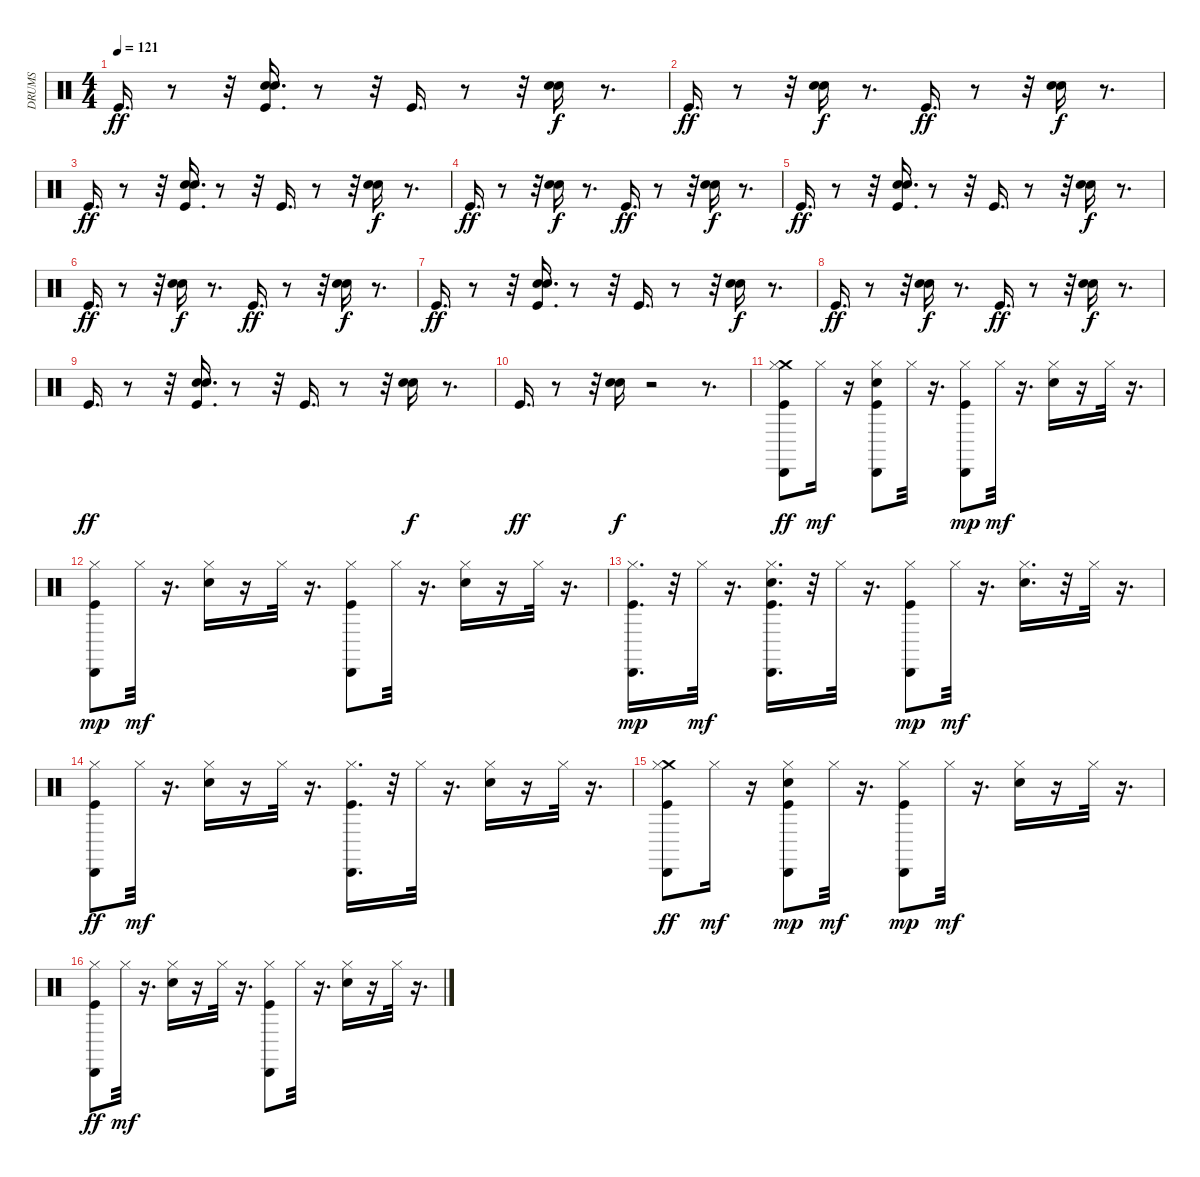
\track ("DRUMS" "DRUMS") {instrument percussion}
\staff {score}
\articulation defaults
\ts (4 4)
\tempo 121
\clef neutral
\ks c "Kick (hit)".16{d dy ff}
r.8 r.32 ("Hand Clap (hit)" "Electric Snare (hit)" "Kick (hit)").16{d} r.8 r.32 "Kick (hit)".16{d} r.8 r.32 ("Electric Snare (hit)" "Hand Clap (hit)").16{dy f} r.8{d} |
"Kick (hit)".16{d dy ff} r.8 r.32 ("Hand Clap (hit)" "Electric Snare (hit)").16{dy f} r.8{d} "Kick (hit)".16{d dy ff} r.8 r.32 ("Hand Clap (hit)" "Electric Snare (hit)").16{dy f} r.8{d} |
"Kick (hit)".16{d dy ff} r.8 r.32 ("Hand Clap (hit)" "Electric Snare (hit)" "Kick (hit)").16{d} r.8 r.32 "Kick (hit)".16{d} r.8 r.32 ("Electric Snare (hit)" "Hand Clap (hit)").16{dy f} r.8{d} |
"Kick (hit)".16{d dy ff} r.8 r.32 ("Electric Snare (hit)" "Hand Clap (hit)").16{dy f} r.8{d} "Kick (hit)".16{d dy ff} r.8 r.32 ("Electric Snare (hit)" "Hand Clap (hit)").16{dy f} r.8{d} |
"Kick (hit)".16{d dy ff} r.8 r.32 ("Hand Clap (hit)" "Electric Snare (hit)" "Kick (hit)").16{d} r.8 r.32 "Kick (hit)".16{d} r.8 r.32 ("Electric Snare (hit)" "Hand Clap (hit)").16{dy f} r.8{d} |
"Kick (hit)".16{d dy ff} r.8 r.32 ("Hand Clap (hit)" "Electric Snare (hit)").16{dy f} r.8{d} "Kick (hit)".16{d dy ff} r.8 r.32 ("Electric Snare (hit)" "Hand Clap (hit)").16{dy f} r.8{d} |
"Kick (hit)".16{d dy ff} r.8 r.32 ("Hand Clap (hit)" "Electric Snare (hit)" "Kick (hit)").16{d} r.8 r.32 "Kick (hit)".16{d} r.8 r.32 ("Electric Snare (hit)" "Hand Clap (hit)").16{dy f} r.8{d} |
"Kick (hit)".16{d dy ff} r.8 r.32 ("Electric Snare (hit)" "Hand Clap (hit)").16{dy f} r.8{d} "Kick (hit)".16{d dy ff} r.8 r.32 ("Hand Clap (hit)" "Electric Snare (hit)").16{dy f} r.8{d} |
"Kick (hit)".16{d dy ff} r.8 r.32 ("Kick (hit)" "Electric Snare (hit)" "Hand Clap (hit)").16{d} r.8 r.32 "Kick (hit)".16{d} r.8 r.32 ("Electric Snare (hit)" "Hand Clap (hit)").16{dy f} r.8{d} |
"Kick (hit)".16{d dy ff} r.8 r.32 ("Electric Snare (hit)" "Hand Clap (hit)").16{dy f} r.2 r.8{d} |
("Cabasa (hit)" "Crash medium (hit)" "Hi-Hat (closed)" "Kick (hit)").8{dy ff} "Hi-Hat (closed)".16{dy mf} r.16 ("Cabasa (hit)" "Kick (hit)" "Electric Snare (hit)" "Hi-Hat (closed)").8 "Hi-Hat (closed)".32 r.16{d} ("Hi-Hat (closed)" "Kick (hit)" "Cabasa (hit)").8{dy mp} "Hi-Hat (closed)".32{dy mf} r.16{d} ("Electric Snare (hit)" "Hi-Hat (closed)").16 r.16 "Hi-Hat (closed)".32 r.16{d} |
("Hi-Hat (closed)" "Kick (hit)" "Cabasa (hit)").8{dy mp} "Hi-Hat (closed)".32{dy mf} r.16{d} ("Electric Snare (hit)" "Hi-Hat (closed)").16 r.16 "Hi-Hat (closed)".32 r.16{d} ("Cabasa (hit)" "Kick (hit)" "Hi-Hat (closed)").8 "Hi-Hat (closed)".32 r.16{d} ("Electric Snare (hit)" "Hi-Hat (closed)").16 r.16 "Hi-Hat (closed)".32 r.16{d} |
("Kick (hit)" "Hi-Hat (closed)" "Cabasa (hit)").16{d dy mp} r.32 "Hi-Hat (closed)".32{dy mf} r.16{d} ("Kick (hit)" "Cabasa (hit)" "Electric Snare (hit)" "Hi-Hat (closed)").16{d} r.32 "Hi-Hat (closed)".32 r.16{d} ("Kick (hit)" "Hi-Hat (closed)" "Cabasa (hit)").8{dy mp} "Hi-Hat (closed)".32{dy mf} r.16{d} ("Hi-Hat (closed)" "Electric Snare (hit)").16{d} r.32 "Hi-Hat (closed)".32 r.16{d} |
("Cabasa (hit)" "Hi-Hat (closed)" "Kick (hit)").8{dy ff} "Hi-Hat (closed)".32{dy mf} r.16{d} ("Hi-Hat (closed)" "Electric Snare (hit)").16 r.16 "Hi-Hat (closed)".32 r.16{d} ("Kick (hit)" "Cabasa (hit)" "Hi-Hat (closed)").16{d} r.32 "Hi-Hat (closed)".32 r.16{d} ("Electric Snare (hit)" "Hi-Hat (closed)").16 r.16 "Hi-Hat (closed)".32 r.16{d} |
("Crash medium (hit)" "Hi-Hat (closed)" "Cabasa (hit)" "Kick (hit)").8{dy ff} "Hi-Hat (closed)".16{dy mf} r.16 ("Electric Snare (hit)" "Hi-Hat (closed)" "Kick (hit)" "Cabasa (hit)").8{dy mp} "Hi-Hat (closed)".32{dy mf} r.16{d} ("Kick (hit)" "Hi-Hat (closed)" "Cabasa (hit)").8{dy mp} "Hi-Hat (closed)".32{dy mf} r.16{d} ("Electric Snare (hit)" "Hi-Hat (closed)").16 r.16 "Hi-Hat (closed)".32 r.16{d} |
("Cabasa (hit)" "Hi-Hat (closed)" "Kick (hit)").8{dy ff} "Hi-Hat (closed)".32{dy mf} r.16{d} ("Hi-Hat (closed)" "Electric Snare (hit)").16 r.16 "Hi-Hat (closed)".32 r.16{d} ("Kick (hit)" "Cabasa (hit)" "Hi-Hat (closed)").8 "Hi-Hat (closed)".32 r.16{d} ("Hi-Hat (closed)" "Electric Snare (hit)").16 r.16 "Hi-Hat (closed)".32 r.16{d}
